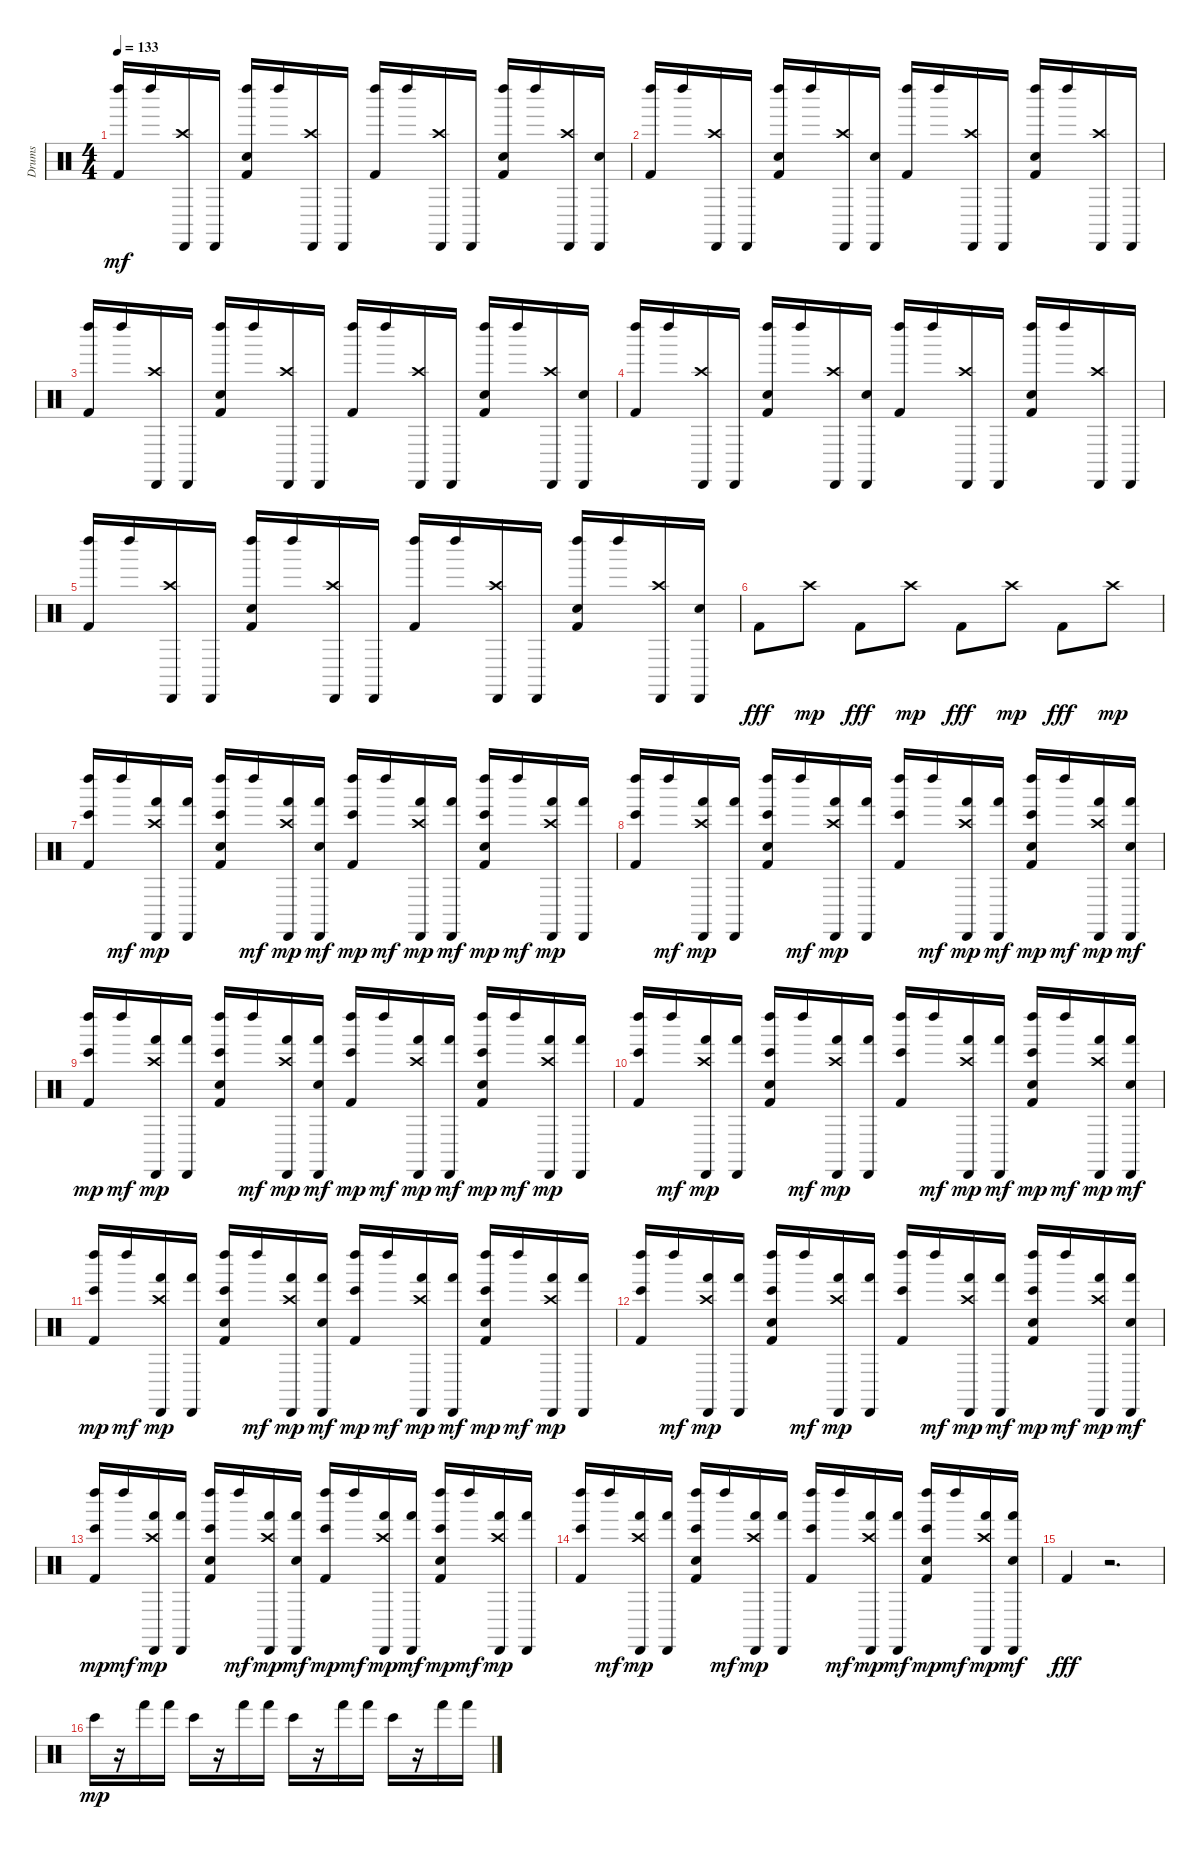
\track ("Drums" "Drums") {instrument percussion}
\staff {score}
\articulation defaults
\ts (4 4)
\tempo 133
\clef neutral
\ks c
("Kick (hit) 2" "Left Maraca (hit)").16{dy mf} "Left Maraca (hit)".16 ("Crash high (hit)" "Cabasa (hit)").16 "Cabasa (hit)".16 ("Kick (hit) 2" "Hand Clap (hit)" "Left Maraca (hit)").16 "Left Maraca (hit)".16 ("Crash high (hit)" "Cabasa (hit)").16 "Cabasa (hit)".16 ("Kick (hit) 2" "Left Maraca (hit)").16 "Left Maraca (hit)".16 ("Crash high (hit)" "Cabasa (hit)").16 "Cabasa (hit)".16 ("Kick (hit) 2" "Hand Clap (hit)" "Left Maraca (hit)").16 "Left Maraca (hit)".16 ("Crash high (hit)" "Cabasa (hit)").16 ("Cabasa (hit)" "Snare (hit) 2").16 |
("Kick (hit) 2" "Left Maraca (hit)").16 "Left Maraca (hit)".16 ("Crash high (hit)" "Cabasa (hit)").16 "Cabasa (hit)".16 ("Kick (hit) 2" "Hand Clap (hit)" "Left Maraca (hit)").16 "Left Maraca (hit)".16 ("Crash high (hit)" "Cabasa (hit)").16 ("Cabasa (hit)" "Snare (hit) 2").16 ("Kick (hit) 2" "Left Maraca (hit)").16 "Left Maraca (hit)".16 ("Crash high (hit)" "Cabasa (hit)").16 "Cabasa (hit)".16 ("Kick (hit) 2" "Hand Clap (hit)" "Left Maraca (hit)").16 "Left Maraca (hit)".16 ("Crash high (hit)" "Cabasa (hit)").16 "Cabasa (hit)".16 |
("Kick (hit) 2" "Left Maraca (hit)").16 "Left Maraca (hit)".16 ("Crash high (hit)" "Cabasa (hit)").16 "Cabasa (hit)".16 ("Kick (hit) 2" "Hand Clap (hit)" "Left Maraca (hit)").16 "Left Maraca (hit)".16 ("Crash high (hit)" "Cabasa (hit)").16 "Cabasa (hit)".16 ("Kick (hit) 2" "Left Maraca (hit)").16 "Left Maraca (hit)".16 ("Crash high (hit)" "Cabasa (hit)").16 "Cabasa (hit)".16 ("Kick (hit) 2" "Hand Clap (hit)" "Left Maraca (hit)").16 "Left Maraca (hit)".16 ("Crash high (hit)" "Cabasa (hit)").16 ("Cabasa (hit)" "Snare (hit) 2").16 |
("Kick (hit) 2" "Left Maraca (hit)").16 "Left Maraca (hit)".16 ("Crash high (hit)" "Cabasa (hit)").16 "Cabasa (hit)".16 ("Kick (hit) 2" "Hand Clap (hit)" "Left Maraca (hit)").16 "Left Maraca (hit)".16 ("Crash high (hit)" "Cabasa (hit)").16 ("Cabasa (hit)" "Snare (hit) 2").16 ("Kick (hit) 2" "Left Maraca (hit)").16 "Left Maraca (hit)".16 ("Crash high (hit)" "Cabasa (hit)").16 "Cabasa (hit)".16 ("Kick (hit) 2" "Hand Clap (hit)" "Left Maraca (hit)").16 "Left Maraca (hit)".16 ("Crash high (hit)" "Cabasa (hit)").16 "Cabasa (hit)".16 |
("Kick (hit) 2" "Left Maraca (hit)").16 "Left Maraca (hit)".16 ("Crash high (hit)" "Cabasa (hit)").16 "Cabasa (hit)".16 ("Kick (hit) 2" "Hand Clap (hit)" "Left Maraca (hit)").16 "Left Maraca (hit)".16 ("Crash high (hit)" "Cabasa (hit)").16 "Cabasa (hit)".16 ("Kick (hit) 2" "Left Maraca (hit)").16 "Left Maraca (hit)".16 ("Crash high (hit)" "Cabasa (hit)").16 "Cabasa (hit)".16 ("Kick (hit) 2" "Hand Clap (hit)" "Left Maraca (hit)").16 "Left Maraca (hit)".16 ("Crash high (hit)" "Cabasa (hit)").16 ("Cabasa (hit)" "Snare (hit) 2").16 |
"Kick (hit) 2".8{dy fff} "Crash high (hit)".8{dy mp} "Kick (hit) 2".8{dy fff} "Crash high (hit)".8{dy mp} "Kick (hit) 2".8{dy fff} "Crash high (hit)".8{dy mp} "Kick (hit) 2".8{dy fff} "Crash high (hit)".8{dy mp} |
("Kick (hit) 2" "Left Maraca (hit)" "Bongo High (hit)").16 "Left Maraca (hit)".16{dy mf} ("Crash high (hit)" "Cabasa (hit)" "Hand (hit)").16{dy mp} ("Cabasa (hit)" "Hand (hit)").16 ("Kick (hit) 2" "Hand Clap (hit)" "Left Maraca (hit)" "Bongo High (hit)").16 "Left Maraca (hit)".16{dy mf} ("Crash high (hit)" "Cabasa (hit)" "Hand (hit)").16{dy mp} ("Cabasa (hit)" "Hand (hit)" "Snare (hit) 2").16{dy mf} ("Kick (hit) 2" "Left Maraca (hit)" "Bongo High (hit)").16{dy mp} "Left Maraca (hit)".16{dy mf} ("Crash high (hit)" "Cabasa (hit)" "Hand (hit)").16{dy mp} ("Hand (hit)" "Cabasa (hit)").16{dy mf} ("Kick (hit) 2" "Hand Clap (hit)" "Left Maraca (hit)" "Bongo High (hit)").16{dy mp} "Left Maraca (hit)".16{dy mf} ("Crash high (hit)" "Cabasa (hit)" "Hand (hit)").16{dy mp} ("Cabasa (hit)" "Hand (hit)").16 |
("Kick (hit) 2" "Left Maraca (hit)" "Bongo High (hit)").16 "Left Maraca (hit)".16{dy mf} ("Crash high (hit)" "Cabasa (hit)" "Hand (hit)").16{dy mp} ("Cabasa (hit)" "Hand (hit)").16 ("Kick (hit) 2" "Hand Clap (hit)" "Left Maraca (hit)" "Bongo High (hit)").16 "Left Maraca (hit)".16{dy mf} ("Crash high (hit)" "Cabasa (hit)" "Hand (hit)").16{dy mp} ("Cabasa (hit)" "Hand (hit)").16 ("Kick (hit) 2" "Left Maraca (hit)" "Bongo High (hit)").16 "Left Maraca (hit)".16{dy mf} ("Crash high (hit)" "Cabasa (hit)" "Hand (hit)").16{dy mp} ("Hand (hit)" "Cabasa (hit)").16{dy mf} ("Kick (hit) 2" "Hand Clap (hit)" "Left Maraca (hit)" "Bongo High (hit)").16{dy mp} "Left Maraca (hit)".16{dy mf} ("Crash high (hit)" "Cabasa (hit)" "Hand (hit)").16{dy mp} ("Cabasa (hit)" "Hand (hit)" "Snare (hit) 2").16{dy mf} |
("Kick (hit) 2" "Left Maraca (hit)" "Bongo High (hit)").16{dy mp} "Left Maraca (hit)".16{dy mf} ("Crash high (hit)" "Cabasa (hit)" "Hand (hit)").16{dy mp} ("Cabasa (hit)" "Hand (hit)").16 ("Kick (hit) 2" "Hand Clap (hit)" "Left Maraca (hit)" "Bongo High (hit)").16 "Left Maraca (hit)".16{dy mf} ("Crash high (hit)" "Cabasa (hit)" "Hand (hit)").16{dy mp} ("Cabasa (hit)" "Hand (hit)" "Snare (hit) 2").16{dy mf} ("Kick (hit) 2" "Left Maraca (hit)" "Bongo High (hit)").16{dy mp} "Left Maraca (hit)".16{dy mf} ("Crash high (hit)" "Cabasa (hit)" "Hand (hit)").16{dy mp} ("Hand (hit)" "Cabasa (hit)").16{dy mf} ("Kick (hit) 2" "Hand Clap (hit)" "Left Maraca (hit)" "Bongo High (hit)").16{dy mp} "Left Maraca (hit)".16{dy mf} ("Crash high (hit)" "Cabasa (hit)" "Hand (hit)").16{dy mp} ("Cabasa (hit)" "Hand (hit)").16 |
("Kick (hit) 2" "Left Maraca (hit)" "Bongo High (hit)").16 "Left Maraca (hit)".16{dy mf} ("Crash high (hit)" "Cabasa (hit)" "Hand (hit)").16{dy mp} ("Cabasa (hit)" "Hand (hit)").16 ("Kick (hit) 2" "Hand Clap (hit)" "Left Maraca (hit)" "Bongo High (hit)").16 "Left Maraca (hit)".16{dy mf} ("Crash high (hit)" "Cabasa (hit)" "Hand (hit)").16{dy mp} ("Cabasa (hit)" "Hand (hit)").16 ("Kick (hit) 2" "Left Maraca (hit)" "Bongo High (hit)").16 "Left Maraca (hit)".16{dy mf} ("Crash high (hit)" "Cabasa (hit)" "Hand (hit)").16{dy mp} ("Hand (hit)" "Cabasa (hit)").16{dy mf} ("Kick (hit) 2" "Hand Clap (hit)" "Left Maraca (hit)" "Bongo High (hit)").16{dy mp} "Left Maraca (hit)".16{dy mf} ("Crash high (hit)" "Cabasa (hit)" "Hand (hit)").16{dy mp} ("Cabasa (hit)" "Hand (hit)" "Snare (hit) 2").16{dy mf} |
("Kick (hit) 2" "Left Maraca (hit)" "Bongo High (hit)").16{dy mp} "Left Maraca (hit)".16{dy mf} ("Crash high (hit)" "Cabasa (hit)" "Hand (hit)").16{dy mp} ("Cabasa (hit)" "Hand (hit)").16 ("Kick (hit) 2" "Hand Clap (hit)" "Left Maraca (hit)" "Bongo High (hit)").16 "Left Maraca (hit)".16{dy mf} ("Crash high (hit)" "Cabasa (hit)" "Hand (hit)").16{dy mp} ("Cabasa (hit)" "Hand (hit)" "Snare (hit) 2").16{dy mf} ("Kick (hit) 2" "Left Maraca (hit)" "Bongo High (hit)").16{dy mp} "Left Maraca (hit)".16{dy mf} ("Crash high (hit)" "Cabasa (hit)" "Hand (hit)").16{dy mp} ("Hand (hit)" "Cabasa (hit)").16{dy mf} ("Kick (hit) 2" "Hand Clap (hit)" "Left Maraca (hit)" "Bongo High (hit)").16{dy mp} "Left Maraca (hit)".16{dy mf} ("Crash high (hit)" "Cabasa (hit)" "Hand (hit)").16{dy mp} ("Cabasa (hit)" "Hand (hit)").16 |
("Kick (hit) 2" "Left Maraca (hit)" "Bongo High (hit)").16 "Left Maraca (hit)".16{dy mf} ("Crash high (hit)" "Cabasa (hit)" "Hand (hit)").16{dy mp} ("Cabasa (hit)" "Hand (hit)").16 ("Kick (hit) 2" "Hand Clap (hit)" "Left Maraca (hit)" "Bongo High (hit)").16 "Left Maraca (hit)".16{dy mf} ("Crash high (hit)" "Cabasa (hit)" "Hand (hit)").16{dy mp} ("Cabasa (hit)" "Hand (hit)").16 ("Kick (hit) 2" "Left Maraca (hit)" "Bongo High (hit)").16 "Left Maraca (hit)".16{dy mf} ("Crash high (hit)" "Cabasa (hit)" "Hand (hit)").16{dy mp} ("Hand (hit)" "Cabasa (hit)").16{dy mf} ("Kick (hit) 2" "Hand Clap (hit)" "Left Maraca (hit)" "Bongo High (hit)").16{dy mp} "Left Maraca (hit)".16{dy mf} ("Crash high (hit)" "Cabasa (hit)" "Hand (hit)").16{dy mp} ("Cabasa (hit)" "Hand (hit)" "Snare (hit) 2").16{dy mf} |
("Kick (hit) 2" "Left Maraca (hit)" "Bongo High (hit)").16{dy mp} "Left Maraca (hit)".16{dy mf} ("Crash high (hit)" "Cabasa (hit)" "Hand (hit)").16{dy mp} ("Cabasa (hit)" "Hand (hit)").16 ("Kick (hit) 2" "Hand Clap (hit)" "Left Maraca (hit)" "Bongo High (hit)").16 "Left Maraca (hit)".16{dy mf} ("Crash high (hit)" "Cabasa (hit)" "Hand (hit)").16{dy mp} ("Cabasa (hit)" "Hand (hit)" "Snare (hit) 2").16{dy mf} ("Kick (hit) 2" "Left Maraca (hit)" "Bongo High (hit)").16{dy mp} "Left Maraca (hit)".16{dy mf} ("Crash high (hit)" "Cabasa (hit)" "Hand (hit)").16{dy mp} ("Hand (hit)" "Cabasa (hit)").16{dy mf} ("Kick (hit) 2" "Hand Clap (hit)" "Left Maraca (hit)" "Bongo High (hit)").16{dy mp} "Left Maraca (hit)".16{dy mf} ("Crash high (hit)" "Cabasa (hit)" "Hand (hit)").16{dy mp} ("Cabasa (hit)" "Hand (hit)").16 |
("Kick (hit) 2" "Left Maraca (hit)" "Bongo High (hit)").16 "Left Maraca (hit)".16{dy mf} ("Crash high (hit)" "Cabasa (hit)" "Hand (hit)").16{dy mp} ("Cabasa (hit)" "Hand (hit)").16 ("Kick (hit) 2" "Hand Clap (hit)" "Left Maraca (hit)" "Bongo High (hit)").16 "Left Maraca (hit)".16{dy mf} ("Crash high (hit)" "Cabasa (hit)" "Hand (hit)").16{dy mp} ("Cabasa (hit)" "Hand (hit)").16 ("Kick (hit) 2" "Left Maraca (hit)" "Bongo High (hit)").16 "Left Maraca (hit)".16{dy mf} ("Crash high (hit)" "Cabasa (hit)" "Hand (hit)").16{dy mp} ("Hand (hit)" "Cabasa (hit)").16{dy mf} ("Kick (hit) 2" "Hand Clap (hit)" "Left Maraca (hit)" "Bongo High (hit)").16{dy mp} "Left Maraca (hit)".16{dy mf} ("Crash high (hit)" "Cabasa (hit)" "Hand (hit)").16{dy mp} ("Cabasa (hit)" "Hand (hit)" "Snare (hit) 2").16{dy mf} |
"Kick (hit) 2".4{dy fff} r.2{d} |
"Bongo High (hit)".16{dy mp} r.16 "Hand (hit)".16{volume 12} "Hand (hit)".16{volume 11} "Bongo High (hit)".16{volume 11} r.16 "Hand (hit)".16{volume 10} "Hand (hit)".16{volume 10} "Bongo High (hit)".16{volume 10} r.16 "Hand (hit)".16{volume 9} "Hand (hit)".16{volume 9} "Bongo High (hit)".16{volume 8} r.16 "Hand (hit)".16{volume 8} "Hand (hit)".16{volume 7}
